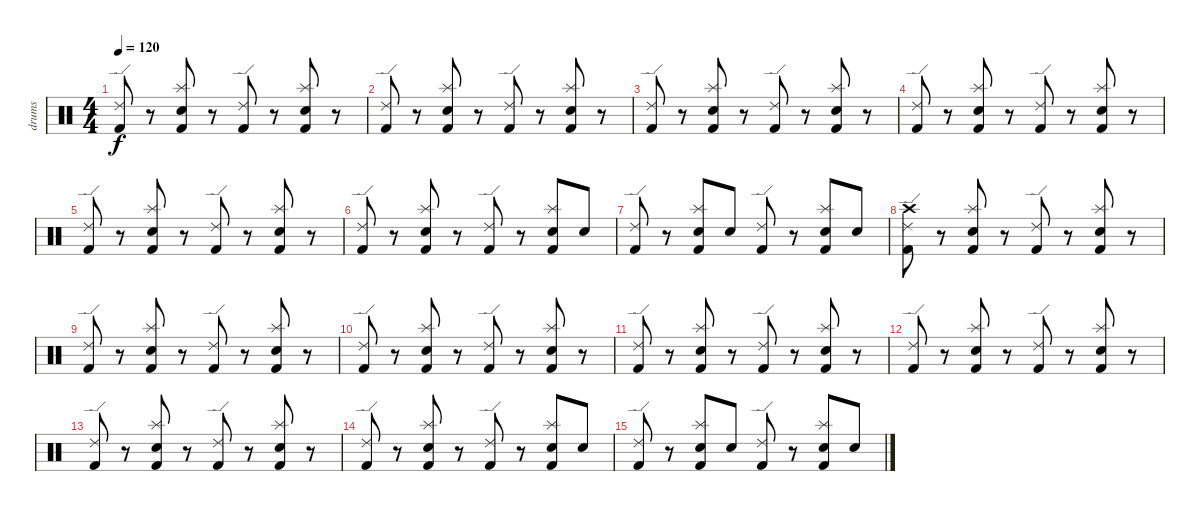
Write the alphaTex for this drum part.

\track ("drums" "drums") {instrument percussion}
\staff {score}
\articulation defaults
\ts (4 4)
\tempo 120
\clef neutral
\ks c
("Ride (edge) 2" "Kick (hit) 2").8{dy f} r.8 ("Splash (hit)" "Snare (hit) 2" "Kick (hit) 2").8 r.8 ("Ride (edge) 2" "Kick (hit) 2").8 r.8 ("Splash (hit)" "Snare (hit) 2" "Kick (hit) 2").8 r.8 |
("Ride (edge) 2" "Kick (hit) 2").8 r.8 ("Splash (hit)" "Snare (hit) 2" "Kick (hit) 2").8 r.8 ("Ride (edge) 2" "Kick (hit) 2").8 r.8 ("Splash (hit)" "Snare (hit) 2" "Kick (hit) 2").8 r.8 |
("Ride (edge) 2" "Kick (hit) 2").8 r.8 ("Splash (hit)" "Snare (hit) 2" "Kick (hit) 2").8 r.8 ("Ride (edge) 2" "Kick (hit) 2").8 r.8 ("Splash (hit)" "Snare (hit) 2" "Kick (hit) 2").8 r.8 |
("Ride (edge) 2" "Kick (hit) 2").8 r.8 ("Splash (hit)" "Snare (hit) 2" "Kick (hit) 2").8 r.8 ("Ride (edge) 2" "Kick (hit) 2").8 r.8 ("Splash (hit)" "Snare (hit) 2" "Kick (hit) 2").8 r.8 |
("Ride (edge) 2" "Kick (hit) 2").8 r.8 ("Splash (hit)" "Snare (hit) 2" "Kick (hit) 2").8 r.8 ("Ride (edge) 2" "Kick (hit) 2").8 r.8 ("Splash (hit)" "Snare (hit) 2" "Kick (hit) 2").8 r.8 |
("Ride (edge) 2" "Kick (hit) 2").8 r.8 ("Splash (hit)" "Snare (hit) 2" "Kick (hit) 2").8 r.8 ("Ride (edge) 2" "Kick (hit) 2").8 r.8 ("Splash (hit)" "Snare (hit) 2" "Kick (hit) 2").8 "Snare (hit) 2".8 |
("Ride (edge) 2" "Kick (hit) 2").8 r.8 ("Splash (hit)" "Snare (hit) 2" "Kick (hit) 2").8 "Snare (hit) 2".8 ("Ride (edge) 2" "Kick (hit) 2").8 r.8 ("Splash (hit)" "Snare (hit) 2" "Kick (hit) 2").8 "Snare (hit) 2".8 |
("Crash high (hit)" "Ride (edge) 2" "Kick (hit) 2").8 r.8 ("Splash (hit)" "Snare (hit) 2" "Kick (hit) 2").8 r.8 ("Ride (edge) 2" "Kick (hit) 2").8 r.8 ("Splash (hit)" "Snare (hit) 2" "Kick (hit) 2").8 r.8 |
("Ride (edge) 2" "Kick (hit) 2").8 r.8 ("Splash (hit)" "Snare (hit) 2" "Kick (hit) 2").8 r.8 ("Ride (edge) 2" "Kick (hit) 2").8 r.8 ("Splash (hit)" "Snare (hit) 2" "Kick (hit) 2").8 r.8 |
("Ride (edge) 2" "Kick (hit) 2").8 r.8 ("Splash (hit)" "Snare (hit) 2" "Kick (hit) 2").8 r.8 ("Ride (edge) 2" "Kick (hit) 2").8 r.8 ("Splash (hit)" "Snare (hit) 2" "Kick (hit) 2").8 r.8 |
("Ride (edge) 2" "Kick (hit) 2").8 r.8 ("Splash (hit)" "Snare (hit) 2" "Kick (hit) 2").8 r.8 ("Ride (edge) 2" "Kick (hit) 2").8 r.8 ("Splash (hit)" "Snare (hit) 2" "Kick (hit) 2").8 r.8 |
("Ride (edge) 2" "Kick (hit) 2").8 r.8 ("Splash (hit)" "Snare (hit) 2" "Kick (hit) 2").8 r.8 ("Ride (edge) 2" "Kick (hit) 2").8 r.8 ("Splash (hit)" "Snare (hit) 2" "Kick (hit) 2").8 r.8 |
("Ride (edge) 2" "Kick (hit) 2").8 r.8 ("Splash (hit)" "Snare (hit) 2" "Kick (hit) 2").8 r.8 ("Ride (edge) 2" "Kick (hit) 2").8 r.8 ("Splash (hit)" "Snare (hit) 2" "Kick (hit) 2").8 r.8 |
("Ride (edge) 2" "Kick (hit) 2").8 r.8 ("Splash (hit)" "Snare (hit) 2" "Kick (hit) 2").8 r.8 ("Ride (edge) 2" "Kick (hit) 2").8 r.8 ("Splash (hit)" "Snare (hit) 2" "Kick (hit) 2").8 "Snare (hit) 2".8 |
("Ride (edge) 2" "Kick (hit) 2").8 r.8 ("Splash (hit)" "Snare (hit) 2" "Kick (hit) 2").8 "Snare (hit) 2".8 ("Ride (edge) 2" "Kick (hit) 2").8 r.8 ("Splash (hit)" "Snare (hit) 2" "Kick (hit) 2").8 "Snare (hit) 2".8
